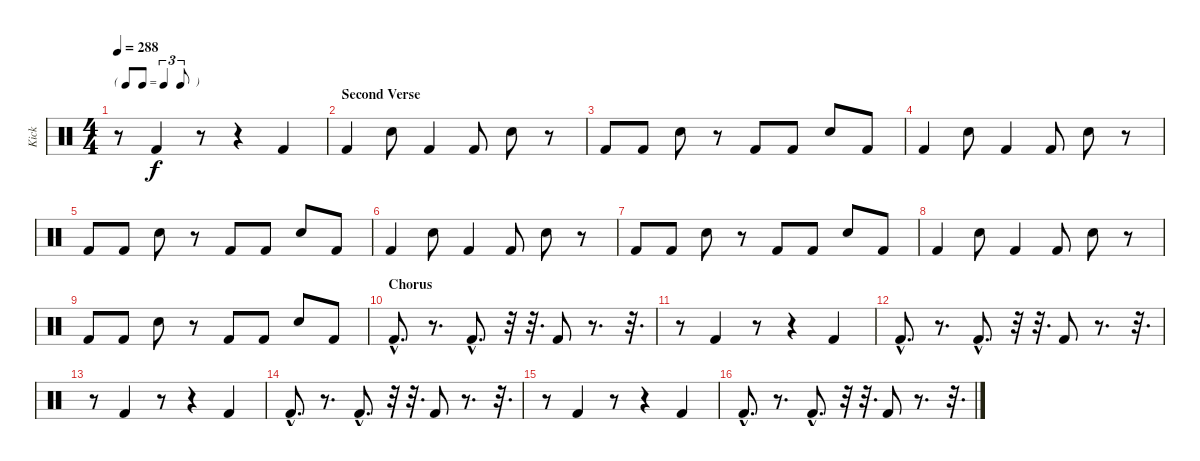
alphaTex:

\track ("Kick" "Kick") {instrument percussion}
\staff {score}
\articulation defaults
\ts (4 4)
\tf triplet8th
\tempo 288
\clef neutral
\ks c
r.8{dy f} "Kick (hit) 2".4 r.8 r.4 "Kick (hit) 2".4 |
\section ("" "Second Verse")
"Kick (hit) 2".4 "Snare (hit) 2".8 "Kick (hit) 2".4 "Kick (hit) 2".8 "Snare (hit) 2".8 r.8 |
"Kick (hit) 2".8 "Kick (hit) 2".8 "Snare (hit) 2".8 r.8 "Kick (hit) 2".8 "Kick (hit) 2".8 "Snare (hit) 2".8 "Kick (hit) 2".8 |
"Kick (hit) 2".4 "Snare (hit) 2".8 "Kick (hit) 2".4 "Kick (hit) 2".8 "Snare (hit) 2".8 r.8 |
"Kick (hit) 2".8 "Kick (hit) 2".8 "Snare (hit) 2".8 r.8 "Kick (hit) 2".8 "Kick (hit) 2".8 "Snare (hit) 2".8 "Kick (hit) 2".8 |
"Kick (hit) 2".4 "Snare (hit) 2".8 "Kick (hit) 2".4 "Kick (hit) 2".8 "Snare (hit) 2".8 r.8 |
"Kick (hit) 2".8 "Kick (hit) 2".8 "Snare (hit) 2".8 r.8 "Kick (hit) 2".8 "Kick (hit) 2".8 "Snare (hit) 2".8 "Kick (hit) 2".8 |
"Kick (hit) 2".4 "Snare (hit) 2".8 "Kick (hit) 2".4 "Kick (hit) 2".8 "Snare (hit) 2".8 r.8 |
"Kick (hit) 2".8 "Kick (hit) 2".8 "Snare (hit) 2".8 r.8 "Kick (hit) 2".8 "Kick (hit) 2".8 "Snare (hit) 2".8 "Kick (hit) 2".8 |
\section ("" "Chorus")
"Kick (hit) 2"{hac}.8{d} r.8{d} "Kick (hit) 2"{hac}.8{d} r.32 r.32{d} "Kick (hit) 2".8 r.8{d} r.32{d} |
r.8 "Kick (hit) 2".4 r.8 r.4 "Kick (hit) 2".4 |
"Kick (hit) 2"{hac}.8{d} r.8{d} "Kick (hit) 2"{hac}.8{d} r.32 r.32{d} "Kick (hit) 2".8 r.8{d} r.32{d} |
r.8 "Kick (hit) 2".4 r.8 r.4 "Kick (hit) 2".4 |
"Kick (hit) 2"{hac}.8{d} r.8{d} "Kick (hit) 2"{hac}.8{d} r.32 r.32{d} "Kick (hit) 2".8 r.8{d} r.32{d} |
r.8 "Kick (hit) 2".4 r.8 r.4 "Kick (hit) 2".4 |
"Kick (hit) 2"{hac}.8{d} r.8{d} "Kick (hit) 2"{hac}.8{d} r.32 r.32{d} "Kick (hit) 2".8 r.8{d} r.32{d}
